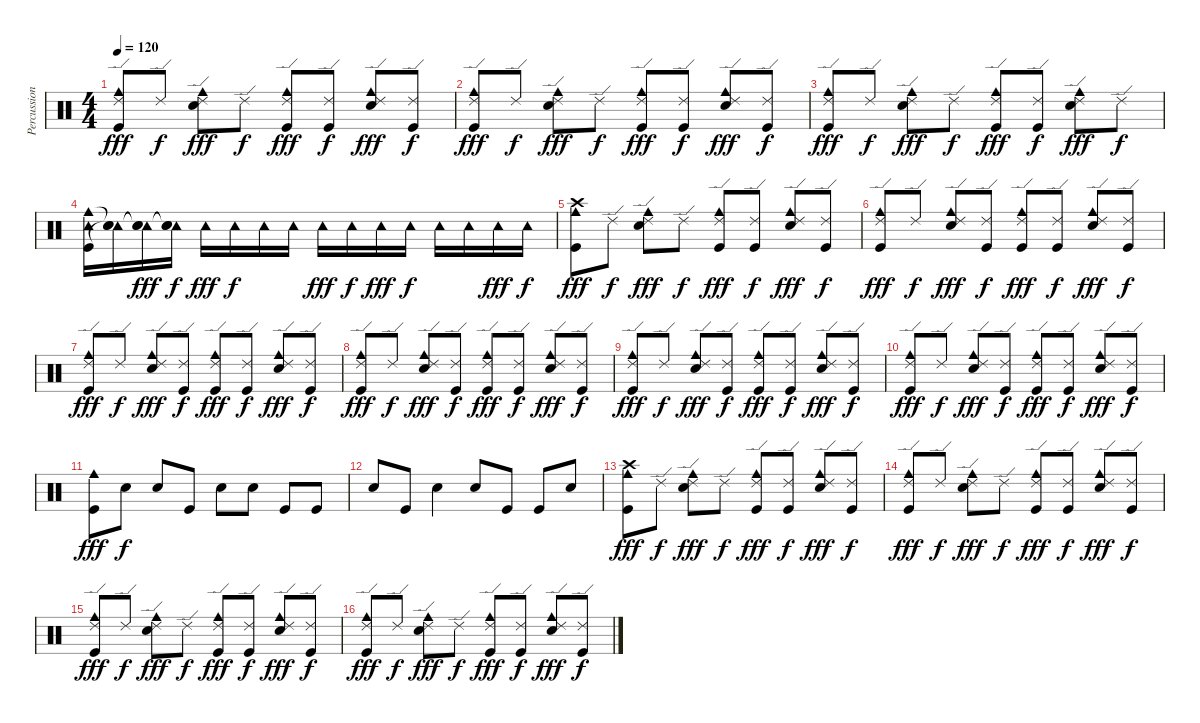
\track ("Percussion" "Percussion") {instrument percussion}
\staff {score}
\articulation defaults
\ts (4 4)
\tempo 120
\clef neutral
\ks c
("Ride (edge) 2" "Cowbell medium (hit)" "Kick (hit)").8{dy fff} "Ride (edge) 2".8{dy f} ("Ride (edge) 2" "Cowbell medium (hit)" "Snare (hit) 2").8{dy fff} "Ride (edge) 2".8{dy f} ("Ride (edge) 2" "Cowbell medium (hit)" "Kick (hit)").8{dy fff} ("Ride (edge) 2" "Kick (hit)").8{dy f} ("Ride (edge) 2" "Cowbell medium (hit)" "Snare (hit) 2").8{dy fff} ("Ride (edge) 2" "Kick (hit)").8{dy f} |
("Ride (edge) 2" "Cowbell medium (hit)" "Kick (hit)").8{dy fff} "Ride (edge) 2".8{dy f} ("Ride (edge) 2" "Cowbell medium (hit)" "Snare (hit) 2").8{dy fff} "Ride (edge) 2".8{dy f} ("Ride (edge) 2" "Cowbell medium (hit)" "Kick (hit)").8{dy fff} ("Ride (edge) 2" "Kick (hit)").8{dy f} ("Ride (edge) 2" "Cowbell medium (hit)" "Snare (hit) 2").8{dy fff} ("Ride (edge) 2" "Kick (hit)").8{dy f} |
("Ride (edge) 2" "Cowbell medium (hit)" "Kick (hit)").8{dy fff} "Ride (edge) 2".8{dy f} ("Ride (edge) 2" "Cowbell medium (hit)" "Snare (hit) 2").8{dy fff} "Ride (edge) 2".8{dy f} ("Ride (edge) 2" "Cowbell medium (hit)" "Kick (hit)").8{dy fff} ("Ride (edge) 2" "Kick (hit)").8{dy f} ("Ride (edge) 2" "Cowbell medium (hit)" "Snare (hit) 2").8{dy fff} "Ride (edge) 2".8{dy f} |
("Tambourine (hit)" "Cowbell medium (hit)" "Kick (hit)").16 ("Tambourine (hit)" "Snare (hit)"{t} "Snare (hit)"{t}).16 ("Tambourine (hit)" "Snare (hit)"{t} "Snare (hit)"{t}).16{dy fff} ("Tambourine (hit)" "Snare (hit)"{t} "Snare (hit)"{t}).16{dy f} "Tambourine (hit)".16{dy fff} "Tambourine (hit)".16{dy f} "Tambourine (hit)".16 "Tambourine (hit)".16 "Tambourine (hit)".16{dy fff} "Tambourine (hit)".16{dy f} "Tambourine (hit)".16{dy fff} "Tambourine (hit)".16{dy f} "Tambourine (hit)".16 "Tambourine (hit)".16 "Tambourine (hit)".16{dy fff} "Tambourine (hit)".16{dy f} |
("Crash high (hit)" "Cowbell medium (hit)" "Kick (hit)").8{dy fff} "Ride (edge) 2".8{dy f} ("Ride (edge) 2" "Cowbell medium (hit)" "Snare (hit) 2").8{dy fff} "Ride (edge) 2".8{dy f} ("Ride (edge) 2" "Cowbell medium (hit)" "Kick (hit)").8{dy fff} ("Ride (edge) 2" "Kick (hit)").8{dy f} ("Ride (edge) 2" "Cowbell medium (hit)" "Snare (hit) 2").8{dy fff} ("Ride (edge) 2" "Kick (hit)").8{dy f} |
("Ride (edge) 2" "Cowbell medium (hit)" "Kick (hit)").8{dy fff} "Ride (edge) 2".8{dy f} ("Ride (edge) 2" "Cowbell medium (hit)" "Snare (hit) 2").8{dy fff} ("Ride (edge) 2" "Kick (hit)").8{dy f} ("Ride (edge) 2" "Cowbell medium (hit)" "Kick (hit)").8{dy fff} ("Ride (edge) 2" "Kick (hit)").8{dy f} ("Ride (edge) 2" "Cowbell medium (hit)" "Snare (hit) 2").8{dy fff} ("Ride (edge) 2" "Kick (hit)").8{dy f} |
("Ride (edge) 2" "Cowbell medium (hit)" "Kick (hit)").8{dy fff} "Ride (edge) 2".8{dy f} ("Ride (edge) 2" "Cowbell medium (hit)" "Snare (hit) 2").8{dy fff} ("Ride (edge) 2" "Kick (hit)").8{dy f} ("Ride (edge) 2" "Cowbell medium (hit)" "Kick (hit)").8{dy fff} ("Ride (edge) 2" "Kick (hit)").8{dy f} ("Ride (edge) 2" "Cowbell medium (hit)" "Snare (hit) 2").8{dy fff} ("Ride (edge) 2" "Kick (hit)").8{dy f} |
("Ride (edge) 2" "Cowbell medium (hit)" "Kick (hit)").8{dy fff} "Ride (edge) 2".8{dy f} ("Ride (edge) 2" "Cowbell medium (hit)" "Snare (hit) 2").8{dy fff} ("Ride (edge) 2" "Kick (hit)").8{dy f} ("Ride (edge) 2" "Cowbell medium (hit)" "Kick (hit)").8{dy fff} ("Ride (edge) 2" "Kick (hit)").8{dy f} ("Ride (edge) 2" "Cowbell medium (hit)" "Snare (hit) 2").8{dy fff} ("Ride (edge) 2" "Kick (hit)").8{dy f} |
("Ride (edge) 2" "Cowbell medium (hit)" "Kick (hit)").8{dy fff} "Ride (edge) 2".8{dy f} ("Ride (edge) 2" "Cowbell medium (hit)" "Snare (hit) 2").8{dy fff} ("Ride (edge) 2" "Kick (hit)").8{dy f} ("Ride (edge) 2" "Cowbell medium (hit)" "Kick (hit)").8{dy fff} ("Ride (edge) 2" "Kick (hit)").8{dy f} ("Ride (edge) 2" "Cowbell medium (hit)" "Snare (hit) 2").8{dy fff} ("Ride (edge) 2" "Kick (hit)").8{dy f} |
("Ride (edge) 2" "Cowbell medium (hit)" "Kick (hit)").8{dy fff} "Ride (edge) 2".8{dy f} ("Ride (edge) 2" "Cowbell medium (hit)" "Snare (hit) 2").8{dy fff} ("Ride (edge) 2" "Kick (hit)").8{dy f} ("Ride (edge) 2" "Cowbell medium (hit)" "Kick (hit)").8{dy fff} ("Ride (edge) 2" "Kick (hit)").8{dy f} ("Ride (edge) 2" "Cowbell medium (hit)" "Snare (hit) 2").8{dy fff} ("Ride (edge) 2" "Kick (hit)").8{dy f} |
("Cowbell medium (hit)" "Kick (hit)").8{dy fff} "Snare (hit) 2".8{dy f} "Snare (hit) 2".8 "Kick (hit)".8 "Snare (hit) 2".8 "Snare (hit) 2".8 "Kick (hit)".8 "Kick (hit)".8 |
"Snare (hit) 2".8 "Kick (hit)".8 "Snare (hit) 2".4 "Snare (hit) 2".8 "Kick (hit)".8 "Kick (hit)".8 "Snare (hit) 2".8 |
("Crash high (hit)" "Cowbell medium (hit)" "Kick (hit)").8{dy fff} "Ride (edge) 2".8{dy f} ("Ride (edge) 2" "Cowbell medium (hit)" "Snare (hit) 2").8{dy fff} "Ride (edge) 2".8{dy f} ("Ride (edge) 2" "Cowbell medium (hit)" "Kick (hit)").8{dy fff} ("Ride (edge) 2" "Kick (hit)").8{dy f} ("Ride (edge) 2" "Cowbell medium (hit)" "Snare (hit) 2").8{dy fff} ("Ride (edge) 2" "Kick (hit)").8{dy f} |
("Ride (edge) 2" "Cowbell medium (hit)" "Kick (hit)").8{dy fff} "Ride (edge) 2".8{dy f} ("Ride (edge) 2" "Cowbell medium (hit)" "Snare (hit) 2").8{dy fff} "Ride (edge) 2".8{dy f} ("Ride (edge) 2" "Cowbell medium (hit)" "Kick (hit)").8{dy fff} ("Ride (edge) 2" "Kick (hit)").8{dy f} ("Ride (edge) 2" "Cowbell medium (hit)" "Snare (hit) 2").8{dy fff} ("Ride (edge) 2" "Kick (hit)").8{dy f} |
("Ride (edge) 2" "Cowbell medium (hit)" "Kick (hit)").8{dy fff} "Ride (edge) 2".8{dy f} ("Ride (edge) 2" "Cowbell medium (hit)" "Snare (hit) 2").8{dy fff} "Ride (edge) 2".8{dy f} ("Ride (edge) 2" "Cowbell medium (hit)" "Kick (hit)").8{dy fff} ("Ride (edge) 2" "Kick (hit)").8{dy f} ("Ride (edge) 2" "Cowbell medium (hit)" "Snare (hit) 2").8{dy fff} ("Ride (edge) 2" "Kick (hit)").8{dy f} |
("Ride (edge) 2" "Cowbell medium (hit)" "Kick (hit)").8{dy fff} "Ride (edge) 2".8{dy f} ("Ride (edge) 2" "Cowbell medium (hit)" "Snare (hit) 2").8{dy fff} "Ride (edge) 2".8{dy f} ("Ride (edge) 2" "Cowbell medium (hit)" "Kick (hit)").8{dy fff} ("Ride (edge) 2" "Kick (hit)").8{dy f} ("Ride (edge) 2" "Cowbell medium (hit)" "Snare (hit) 2").8{dy fff} ("Ride (edge) 2" "Kick (hit)").8{dy f}
